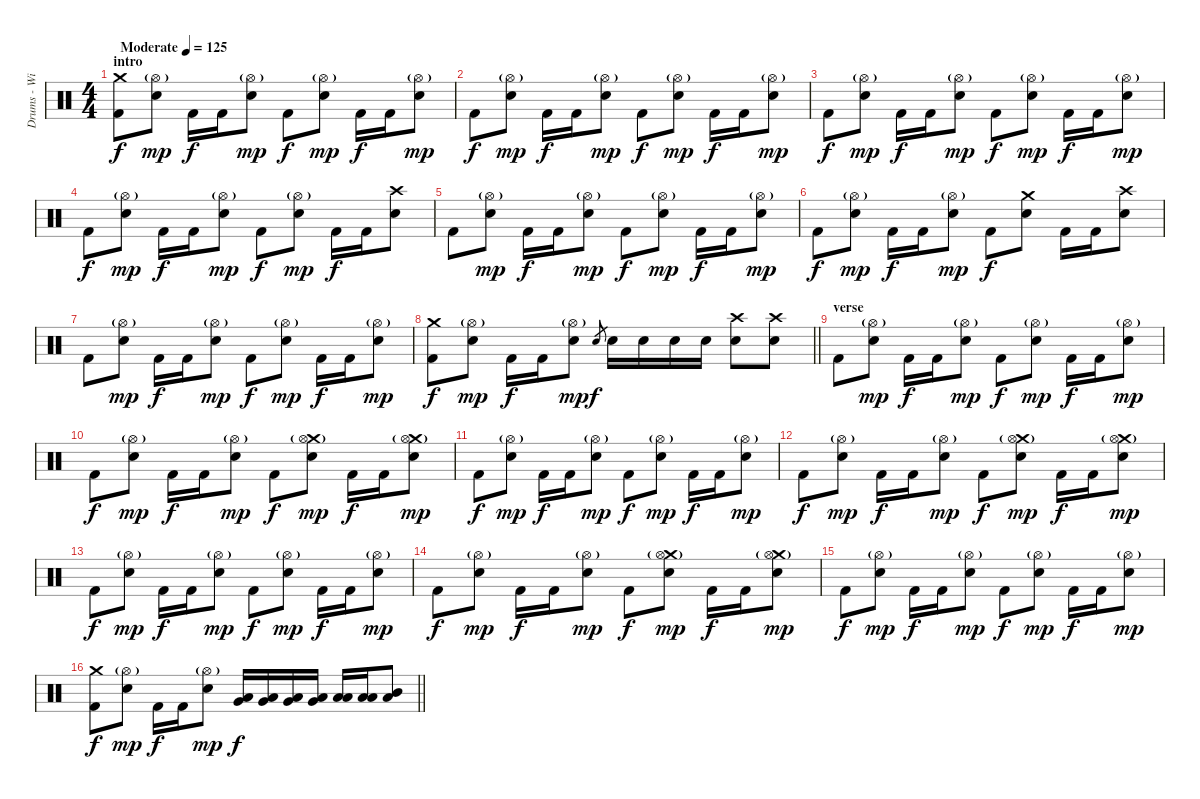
\track ("Drums - Willie Buchan" "Drums - Wi") {instrument percussion}
\staff {score}
\articulation defaults
\ts (4 4)
\section ("" "intro")
\tempo (125 "Moderate")
\clef neutral
\ks c
("Crash medium (hit)" "Kick (hit) 2").8{dy f} ("Hi-Hat (open)"{g} "Electric Snare (hit)").8{dy mp} "Kick (hit) 2".16{dy f} "Kick (hit) 2".16 ("Hi-Hat (open)"{g} "Electric Snare (hit)").8{dy mp} "Kick (hit) 2".8{dy f} ("Hi-Hat (open)"{g} "Electric Snare (hit)").8{dy mp} "Kick (hit) 2".16{dy f} "Kick (hit) 2".16 ("Hi-Hat (open)"{g} "Electric Snare (hit)").8{dy mp} |
"Kick (hit) 2".8{dy f} ("Hi-Hat (open)"{g} "Electric Snare (hit)").8{dy mp} "Kick (hit) 2".16{dy f} "Kick (hit) 2".16 ("Hi-Hat (open)"{g} "Electric Snare (hit)").8{dy mp} "Kick (hit) 2".8{dy f} ("Hi-Hat (open)"{g} "Electric Snare (hit)").8{dy mp} "Kick (hit) 2".16{dy f} "Kick (hit) 2".16 ("Hi-Hat (open)"{g} "Electric Snare (hit)").8{dy mp} |
"Kick (hit) 2".8{dy f} ("Hi-Hat (open)"{g} "Electric Snare (hit)").8{dy mp} "Kick (hit) 2".16{dy f} "Kick (hit) 2".16 ("Hi-Hat (open)"{g} "Electric Snare (hit)").8{dy mp} "Kick (hit) 2".8{dy f} ("Hi-Hat (open)"{g} "Electric Snare (hit)").8{dy mp} "Kick (hit) 2".16{dy f} "Kick (hit) 2".16 ("Hi-Hat (open)"{g} "Electric Snare (hit)").8{dy mp} |
"Kick (hit) 2".8{dy f} ("Hi-Hat (open)"{g} "Electric Snare (hit)").8{dy mp} "Kick (hit) 2".16{dy f} "Kick (hit) 2".16 ("Hi-Hat (open)"{g} "Electric Snare (hit)").8{dy mp} "Kick (hit) 2".8{dy f} ("Hi-Hat (open)"{g} "Electric Snare (hit)").8{dy mp} "Kick (hit) 2".16{dy f} "Kick (hit) 2".16 ("Crash high (hit)" "Electric Snare (hit)").8 |
"Kick (hit) 2".8 ("Hi-Hat (open)"{g} "Electric Snare (hit)").8{dy mp} "Kick (hit) 2".16{dy f} "Kick (hit) 2".16 ("Hi-Hat (open)"{g} "Electric Snare (hit)").8{dy mp} "Kick (hit) 2".8{dy f} ("Hi-Hat (open)"{g} "Electric Snare (hit)").8{dy mp} "Kick (hit) 2".16{dy f} "Kick (hit) 2".16 ("Hi-Hat (open)"{g} "Electric Snare (hit)").8{dy mp} |
"Kick (hit) 2".8{dy f} ("Hi-Hat (open)"{g} "Electric Snare (hit)").8{dy mp} "Kick (hit) 2".16{dy f} "Kick (hit) 2".16 ("Hi-Hat (open)"{g} "Electric Snare (hit)").8{dy mp} "Kick (hit) 2".8{dy f} ("Crash medium (hit)" "Electric Snare (hit)").8 "Kick (hit) 2".16 "Kick (hit) 2".16 ("Crash high (hit)" "Electric Snare (hit)").8 |
"Kick (hit) 2".8 ("Hi-Hat (open)"{g} "Electric Snare (hit)").8{dy mp} "Kick (hit) 2".16{dy f} "Kick (hit) 2".16 ("Hi-Hat (open)"{g} "Electric Snare (hit)").8{dy mp} "Kick (hit) 2".8{dy f} ("Hi-Hat (open)"{g} "Electric Snare (hit)").8{dy mp} "Kick (hit) 2".16{dy f} "Kick (hit) 2".16 ("Hi-Hat (open)"{g} "Electric Snare (hit)").8{dy mp} |
\barLineRight lightlight
("Crash medium (hit)" "Kick (hit) 2").8{dy f} ("Hi-Hat (open)"{g} "Electric Snare (hit)").8{dy mp} "Kick (hit) 2".16{dy f} "Kick (hit) 2".16 ("Hi-Hat (open)"{g} "Electric Snare (hit)").8{dy mp} "Electric Snare (hit)".8{gr dy f} "Electric Snare (hit)".16 "Electric Snare (hit)".16 "Electric Snare (hit)".16 "Electric Snare (hit)".16 ("Crash high (hit)" "Electric Snare (hit)").8 ("Crash high (hit)" "Electric Snare (hit)").8 |
\section ("" "verse")
"Kick (hit) 2".8 ("Hi-Hat (open)"{g} "Electric Snare (hit)").8{dy mp} "Kick (hit) 2".16{dy f} "Kick (hit) 2".16 ("Hi-Hat (open)"{g} "Electric Snare (hit)").8{dy mp} "Kick (hit) 2".8{dy f} ("Hi-Hat (open)"{g} "Electric Snare (hit)").8{dy mp} "Kick (hit) 2".16{dy f} "Kick (hit) 2".16 ("Hi-Hat (open)"{g} "Electric Snare (hit)").8{dy mp} |
"Kick (hit) 2".8{dy f} ("Hi-Hat (open)"{g} "Electric Snare (hit)").8{dy mp} "Kick (hit) 2".16{dy f} "Kick (hit) 2".16 ("Hi-Hat (open)"{g} "Electric Snare (hit)").8{dy mp} "Kick (hit) 2".8{dy f} ("Crash medium (hit)"{g} "Hi-Hat (open)"{g} "Electric Snare (hit)").8{dy mp} "Kick (hit) 2".16{dy f} "Kick (hit) 2".16 ("Crash medium (hit)"{g} "Hi-Hat (open)"{g} "Electric Snare (hit)").8{dy mp} |
"Kick (hit) 2".8{dy f} ("Hi-Hat (open)"{g} "Electric Snare (hit)").8{dy mp} "Kick (hit) 2".16{dy f} "Kick (hit) 2".16 ("Hi-Hat (open)"{g} "Electric Snare (hit)").8{dy mp} "Kick (hit) 2".8{dy f} ("Hi-Hat (open)"{g} "Electric Snare (hit)").8{dy mp} "Kick (hit) 2".16{dy f} "Kick (hit) 2".16 ("Hi-Hat (open)"{g} "Electric Snare (hit)").8{dy mp} |
"Kick (hit) 2".8{dy f} ("Hi-Hat (open)"{g} "Electric Snare (hit)").8{dy mp} "Kick (hit) 2".16{dy f} "Kick (hit) 2".16 ("Hi-Hat (open)"{g} "Electric Snare (hit)").8{dy mp} "Kick (hit) 2".8{dy f} ("Crash medium (hit)"{g} "Hi-Hat (open)"{g} "Electric Snare (hit)").8{dy mp} "Kick (hit) 2".16{dy f} "Kick (hit) 2".16 ("Crash medium (hit)"{g} "Hi-Hat (open)"{g} "Electric Snare (hit)").8{dy mp} |
"Kick (hit) 2".8{dy f} ("Hi-Hat (open)"{g} "Electric Snare (hit)").8{dy mp} "Kick (hit) 2".16{dy f} "Kick (hit) 2".16 ("Hi-Hat (open)"{g} "Electric Snare (hit)").8{dy mp} "Kick (hit) 2".8{dy f} ("Hi-Hat (open)"{g} "Electric Snare (hit)").8{dy mp} "Kick (hit) 2".16{dy f} "Kick (hit) 2".16 ("Hi-Hat (open)"{g} "Electric Snare (hit)").8{dy mp} |
"Kick (hit) 2".8{dy f} ("Hi-Hat (open)"{g} "Electric Snare (hit)").8{dy mp} "Kick (hit) 2".16{dy f} "Kick (hit) 2".16 ("Hi-Hat (open)"{g} "Electric Snare (hit)").8{dy mp} "Kick (hit) 2".8{dy f} ("Crash medium (hit)"{g} "Hi-Hat (open)"{g} "Electric Snare (hit)").8{dy mp} "Kick (hit) 2".16{dy f} "Kick (hit) 2".16 ("Crash medium (hit)"{g} "Hi-Hat (open)"{g} "Electric Snare (hit)").8{dy mp} |
"Kick (hit) 2".8{dy f} ("Hi-Hat (open)"{g} "Electric Snare (hit)").8{dy mp} "Kick (hit) 2".16{dy f} "Kick (hit) 2".16 ("Hi-Hat (open)"{g} "Electric Snare (hit)").8{dy mp} "Kick (hit) 2".8{dy f} ("Hi-Hat (open)"{g} "Electric Snare (hit)").8{dy mp} "Kick (hit) 2".16{dy f} "Kick (hit) 2".16 ("Hi-Hat (open)"{g} "Electric Snare (hit)").8{dy mp} |
\barLineRight lightlight
("Crash medium (hit)" "Kick (hit) 2").8{dy f} ("Hi-Hat (open)"{g} "Electric Snare (hit)").8{dy mp} "Kick (hit) 2".16{dy f} "Kick (hit) 2".16 ("Hi-Hat (open)"{g} "Electric Snare (hit)").8{dy mp} ("Very Low Tom (hit)" "Low Floor Tom (hit)").16{dy f} ("Very Low Tom (hit)" "Low Floor Tom (hit)").16 ("Very Low Tom (hit)" "Low Floor Tom (hit)").16 ("Very Low Tom (hit)" "Low Floor Tom (hit)").16 ("Low Tom (hit)" "Low Floor Tom (hit)").16 ("Low Tom (hit)" "Low Floor Tom (hit)").16 ("Mid Tom (hit)" "Low Floor Tom (hit)").8
